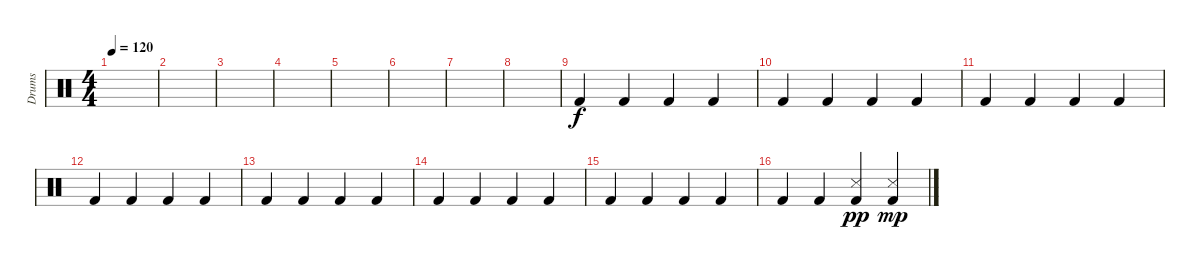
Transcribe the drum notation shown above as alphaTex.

\track ("Drums" "Drums") {instrument percussion}
\staff {score}
\articulation defaults
\ts (4 4)
\tempo 120
\clef neutral
\ks c
|
|
|
|
|
|
|
|
"Kick (hit) 2".4 "Kick (hit) 2".4 "Kick (hit) 2".4 "Kick (hit) 2".4 |
"Kick (hit) 2".4 "Kick (hit) 2".4 "Kick (hit) 2".4 "Kick (hit) 2".4 |
"Kick (hit) 2".4 "Kick (hit) 2".4 "Kick (hit) 2".4 "Kick (hit) 2".4 |
"Kick (hit) 2".4 "Kick (hit) 2".4 "Kick (hit) 2".4 "Kick (hit) 2".4 |
"Kick (hit) 2".4 "Kick (hit) 2".4 "Kick (hit) 2".4 "Kick (hit) 2".4 |
"Kick (hit) 2".4 "Kick (hit) 2".4 "Kick (hit) 2".4 "Kick (hit) 2".4 |
"Kick (hit) 2".4 "Kick (hit) 2".4 "Kick (hit) 2".4 "Kick (hit) 2".4 |
"Kick (hit) 2".4 "Kick (hit) 2".4 ("Kick (hit) 2" "Snare (side stick) 3").4{dy pp} ("Kick (hit) 2" "Snare (side stick) 3").4{dy mp}
